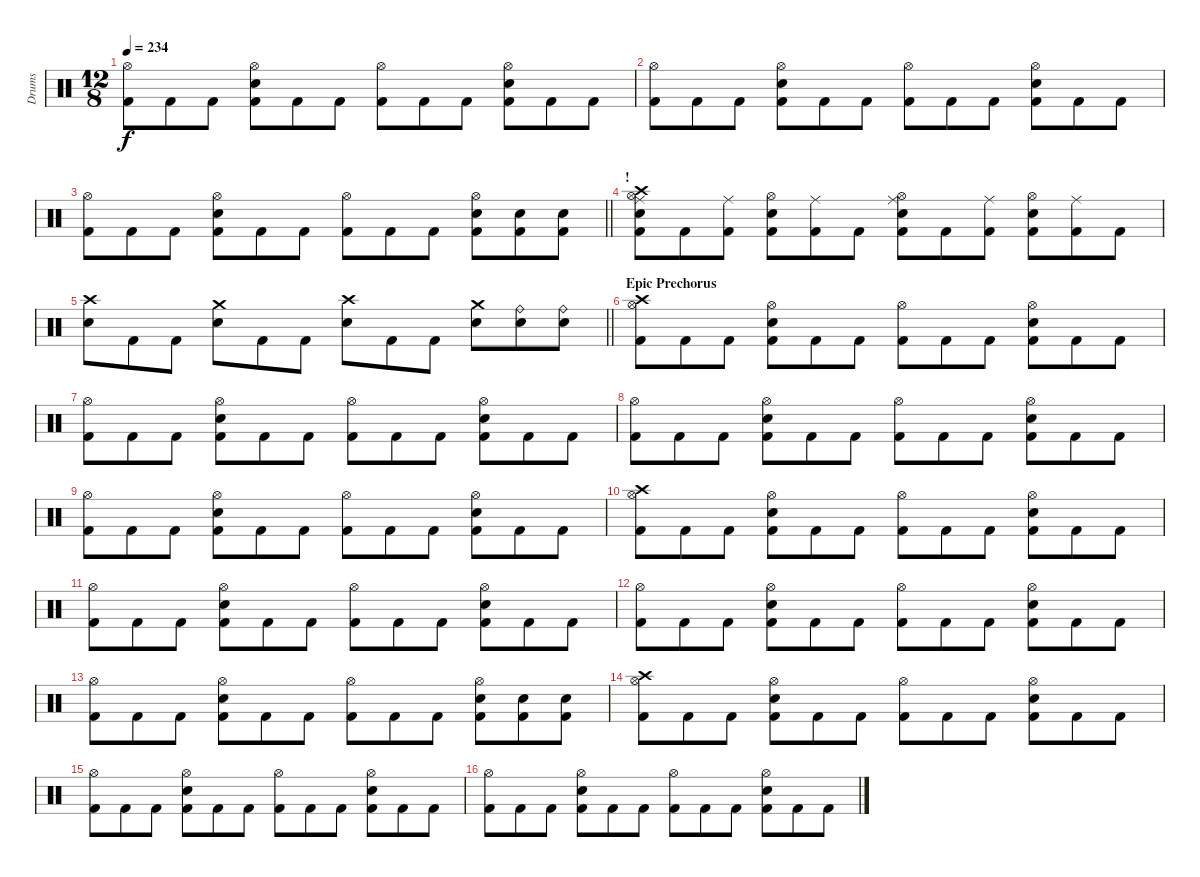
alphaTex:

\track ("Drums" "Drums") {instrument percussion}
\staff {score}
\articulation defaults
\ts (12 8)
\tempo 234
\clef neutral
\ks c
("Hi-Hat (open)" "Kick (hit) 2").8{dy f} "Kick (hit) 2".8 "Kick (hit) 2".8 ("Hi-Hat (open)" "Snare (hit) 2" "Kick (hit) 2").8 "Kick (hit) 2".8 "Kick (hit) 2".8 ("Hi-Hat (open)" "Kick (hit) 2").8 "Kick (hit) 2".8 "Kick (hit) 2".8 ("Hi-Hat (open)" "Snare (hit) 2" "Kick (hit) 2").8 "Kick (hit) 2".8 "Kick (hit) 2".8 |
("Hi-Hat (open)" "Kick (hit) 2").8 "Kick (hit) 2".8 "Kick (hit) 2".8 ("Hi-Hat (open)" "Snare (hit) 2" "Kick (hit) 2").8 "Kick (hit) 2".8 "Kick (hit) 2".8 ("Hi-Hat (open)" "Kick (hit) 2").8 "Kick (hit) 2".8 "Kick (hit) 2".8 ("Hi-Hat (open)" "Snare (hit) 2" "Kick (hit) 2").8 "Kick (hit) 2".8 "Kick (hit) 2".8 |
\barLineRight lightlight
("Hi-Hat (open)" "Kick (hit) 2").8 "Kick (hit) 2".8 "Kick (hit) 2".8 ("Hi-Hat (open)" "Snare (hit) 2" "Kick (hit) 2").8 "Kick (hit) 2".8 "Kick (hit) 2".8 ("Hi-Hat (open)" "Kick (hit) 2").8 "Kick (hit) 2".8 "Kick (hit) 2".8 ("Hi-Hat (open)" "Snare (hit) 2" "Kick (hit) 2").8 ("Snare (hit) 2" "Kick (hit) 2").8 ("Snare (hit) 2" "Kick (hit) 2").8 |
\section ("" "!")
("Crash high (hit)" "Ride (middle)" "Hi-Hat (open)" "Snare (hit) 2" "Kick (hit) 2").8 "Kick (hit) 2".8 ("Ride (middle)" "Kick (hit) 2").8 ("Hi-Hat (open)" "Snare (hit) 2" "Kick (hit) 2").8 ("Ride (middle)" "Kick (hit) 2").8 "Kick (hit) 2".8 ("Ride (middle)" "Hi-Hat (open)" "Snare (hit) 2" "Kick (hit) 2").8 "Kick (hit) 2".8 ("Ride (middle)" "Kick (hit) 2").8 ("Hi-Hat (open)" "Snare (hit) 2" "Kick (hit) 2").8 ("Ride (middle)" "Kick (hit) 2").8 "Kick (hit) 2".8 |
\barLineRight lightlight
("Crash high (hit)" "Snare (hit) 2").8 "Kick (hit) 2".8 "Kick (hit) 2".8 ("Crash medium (hit)" "Snare (hit) 2").8 "Kick (hit) 2".8 "Kick (hit) 2".8 ("Crash high (hit)" "Snare (hit) 2").8 "Kick (hit) 2".8 "Kick (hit) 2".8 ("Crash medium (hit)" "Snare (hit) 2").8 ("Ride (bell)" "Snare (hit) 2").8 ("Ride (bell)" "Snare (hit) 2").8 |
\section ("" "Epic Prechorus")
("Crash high (hit)" "Hi-Hat (open)" "Kick (hit) 2").8 "Kick (hit) 2".8 "Kick (hit) 2".8 ("Hi-Hat (open)" "Snare (hit) 2" "Kick (hit) 2").8 "Kick (hit) 2".8 "Kick (hit) 2".8 ("Hi-Hat (open)" "Kick (hit) 2").8 "Kick (hit) 2".8 "Kick (hit) 2".8 ("Hi-Hat (open)" "Snare (hit) 2" "Kick (hit) 2").8 "Kick (hit) 2".8 "Kick (hit) 2".8 |
("Hi-Hat (open)" "Kick (hit) 2").8 "Kick (hit) 2".8 "Kick (hit) 2".8 ("Hi-Hat (open)" "Snare (hit) 2" "Kick (hit) 2").8 "Kick (hit) 2".8 "Kick (hit) 2".8 ("Hi-Hat (open)" "Kick (hit) 2").8 "Kick (hit) 2".8 "Kick (hit) 2".8 ("Hi-Hat (open)" "Snare (hit) 2" "Kick (hit) 2").8 "Kick (hit) 2".8 "Kick (hit) 2".8 |
("Hi-Hat (open)" "Kick (hit) 2").8 "Kick (hit) 2".8 "Kick (hit) 2".8 ("Hi-Hat (open)" "Snare (hit) 2" "Kick (hit) 2").8 "Kick (hit) 2".8 "Kick (hit) 2".8 ("Hi-Hat (open)" "Kick (hit) 2").8 "Kick (hit) 2".8 "Kick (hit) 2".8 ("Hi-Hat (open)" "Snare (hit) 2" "Kick (hit) 2").8 "Kick (hit) 2".8 "Kick (hit) 2".8 |
("Hi-Hat (open)" "Kick (hit) 2").8 "Kick (hit) 2".8 "Kick (hit) 2".8 ("Hi-Hat (open)" "Snare (hit) 2" "Kick (hit) 2").8 "Kick (hit) 2".8 "Kick (hit) 2".8 ("Hi-Hat (open)" "Kick (hit) 2").8 "Kick (hit) 2".8 "Kick (hit) 2".8 ("Hi-Hat (open)" "Snare (hit) 2" "Kick (hit) 2").8 "Kick (hit) 2".8 "Kick (hit) 2".8 |
("Crash high (hit)" "Hi-Hat (open)" "Kick (hit) 2").8 "Kick (hit) 2".8 "Kick (hit) 2".8 ("Hi-Hat (open)" "Snare (hit) 2" "Kick (hit) 2").8 "Kick (hit) 2".8 "Kick (hit) 2".8 ("Hi-Hat (open)" "Kick (hit) 2").8 "Kick (hit) 2".8 "Kick (hit) 2".8 ("Hi-Hat (open)" "Snare (hit) 2" "Kick (hit) 2").8 "Kick (hit) 2".8 "Kick (hit) 2".8 |
("Hi-Hat (open)" "Kick (hit) 2").8 "Kick (hit) 2".8 "Kick (hit) 2".8 ("Hi-Hat (open)" "Snare (hit) 2" "Kick (hit) 2").8 "Kick (hit) 2".8 "Kick (hit) 2".8 ("Hi-Hat (open)" "Kick (hit) 2").8 "Kick (hit) 2".8 "Kick (hit) 2".8 ("Hi-Hat (open)" "Snare (hit) 2" "Kick (hit) 2").8 "Kick (hit) 2".8 "Kick (hit) 2".8 |
("Hi-Hat (open)" "Kick (hit) 2").8 "Kick (hit) 2".8 "Kick (hit) 2".8 ("Hi-Hat (open)" "Snare (hit) 2" "Kick (hit) 2").8 "Kick (hit) 2".8 "Kick (hit) 2".8 ("Hi-Hat (open)" "Kick (hit) 2").8 "Kick (hit) 2".8 "Kick (hit) 2".8 ("Hi-Hat (open)" "Snare (hit) 2" "Kick (hit) 2").8 "Kick (hit) 2".8 "Kick (hit) 2".8 |
("Hi-Hat (open)" "Kick (hit) 2").8 "Kick (hit) 2".8 "Kick (hit) 2".8 ("Hi-Hat (open)" "Snare (hit) 2" "Kick (hit) 2").8 "Kick (hit) 2".8 "Kick (hit) 2".8 ("Hi-Hat (open)" "Kick (hit) 2").8 "Kick (hit) 2".8 "Kick (hit) 2".8 ("Hi-Hat (open)" "Snare (hit) 2" "Kick (hit) 2").8 ("Snare (hit) 2" "Kick (hit) 2").8 ("Snare (hit) 2" "Kick (hit) 2").8 |
("Crash high (hit)" "Hi-Hat (open)" "Kick (hit) 2").8 "Kick (hit) 2".8 "Kick (hit) 2".8 ("Hi-Hat (open)" "Snare (hit) 2" "Kick (hit) 2").8 "Kick (hit) 2".8 "Kick (hit) 2".8 ("Hi-Hat (open)" "Kick (hit) 2").8 "Kick (hit) 2".8 "Kick (hit) 2".8 ("Hi-Hat (open)" "Snare (hit) 2" "Kick (hit) 2").8 "Kick (hit) 2".8 "Kick (hit) 2".8 |
("Hi-Hat (open)" "Kick (hit) 2").8 "Kick (hit) 2".8 "Kick (hit) 2".8 ("Hi-Hat (open)" "Snare (hit) 2" "Kick (hit) 2").8 "Kick (hit) 2".8 "Kick (hit) 2".8 ("Hi-Hat (open)" "Kick (hit) 2").8 "Kick (hit) 2".8 "Kick (hit) 2".8 ("Hi-Hat (open)" "Snare (hit) 2" "Kick (hit) 2").8 "Kick (hit) 2".8 "Kick (hit) 2".8 |
("Hi-Hat (open)" "Kick (hit) 2").8 "Kick (hit) 2".8 "Kick (hit) 2".8 ("Hi-Hat (open)" "Snare (hit) 2" "Kick (hit) 2").8 "Kick (hit) 2".8 "Kick (hit) 2".8 ("Hi-Hat (open)" "Kick (hit) 2").8 "Kick (hit) 2".8 "Kick (hit) 2".8 ("Hi-Hat (open)" "Snare (hit) 2" "Kick (hit) 2").8 "Kick (hit) 2".8 "Kick (hit) 2".8
